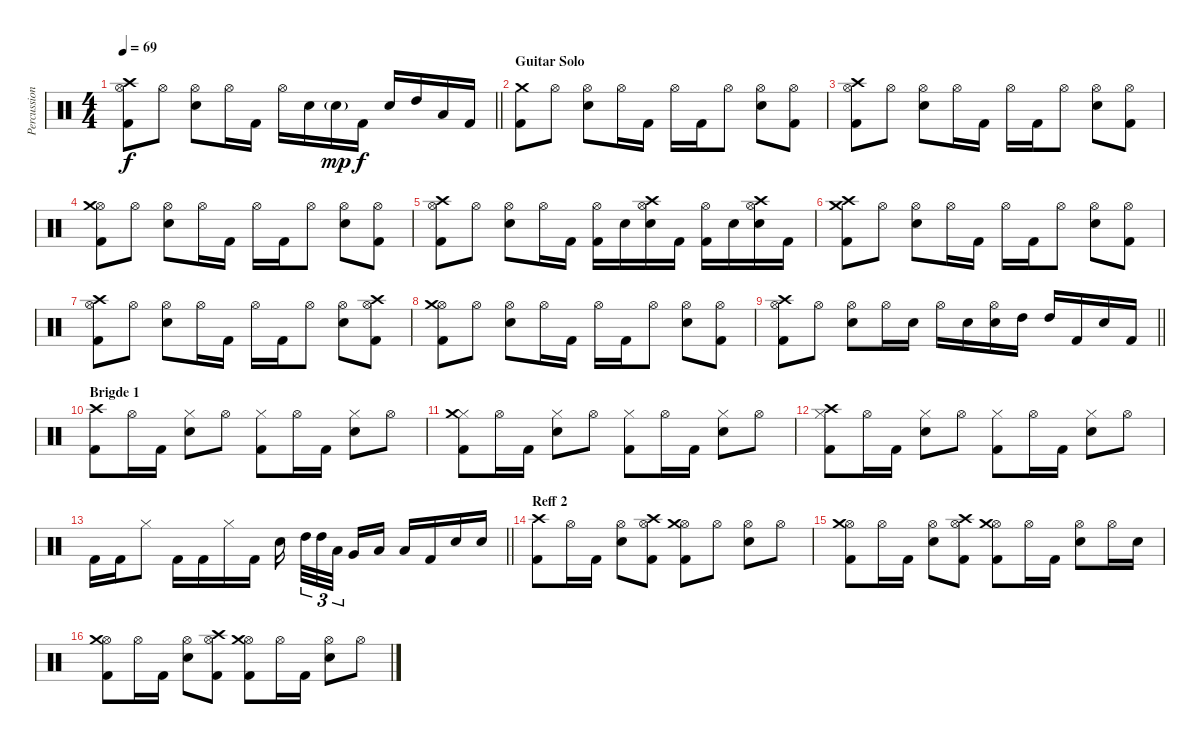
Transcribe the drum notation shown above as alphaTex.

\track ("Percussion" "Percussion") {instrument percussion}
\staff {score}
\articulation defaults
\ts (4 4)
\tempo 69
\clef neutral
\barLineRight lightlight
\ks c
("Hi-Hat (open)" "Crash high (hit)" "Kick (hit) 2").8{dy f} "Hi-Hat (open)".8 ("Hi-Hat (open)" "Electric Snare (hit)").8 "Hi-Hat (open)".16 "Kick (hit) 2".16 "Hi-Hat (open)".16 "Electric Snare (hit)".16 "Electric Snare (hit)"{g}.16{dy mp} "Kick (hit) 2".16{dy f} "Electric Snare (hit)".16 "High Tom (hit)".16 "Low Tom (hit)".16 "Kick (hit) 2".16 |
\section ("" "Guitar Solo")
("Crash medium (hit)" "Kick (hit) 2").8 "Hi-Hat (open)".8 ("Hi-Hat (open)" "Electric Snare (hit)").8 "Hi-Hat (open)".16 "Kick (hit) 2".16 "Hi-Hat (open)".16 "Kick (hit) 2".16 "Hi-Hat (open)".8 ("Hi-Hat (open)" "Electric Snare (hit)").8 ("Hi-Hat (open)" "Kick (hit) 2").8 |
("Hi-Hat (open)" "Crash high (hit)" "Kick (hit) 2").8 "Hi-Hat (open)".8 ("Hi-Hat (open)" "Electric Snare (hit)").8 "Hi-Hat (open)".16 "Kick (hit) 2".16 "Hi-Hat (open)".16 "Kick (hit) 2".16 "Hi-Hat (open)".8 ("Hi-Hat (open)" "Electric Snare (hit)").8 ("Hi-Hat (open)" "Kick (hit) 2").8 |
("Hi-Hat (open)" "Crash medium (hit)" "Kick (hit) 2").8 "Hi-Hat (open)".8 ("Hi-Hat (open)" "Electric Snare (hit)").8 "Hi-Hat (open)".16 "Kick (hit) 2".16 "Hi-Hat (open)".16 "Kick (hit) 2".16 "Hi-Hat (open)".8 ("Hi-Hat (open)" "Electric Snare (hit)").8 ("Hi-Hat (open)" "Kick (hit) 2").8 |
("Hi-Hat (open)" "Crash high (hit)" "Kick (hit) 2").8 "Hi-Hat (open)".8 ("Hi-Hat (open)" "Electric Snare (hit)").8 "Hi-Hat (open)".16 "Kick (hit) 2".16 ("Hi-Hat (open)" "Kick (hit) 2").16 "Electric Snare (hit)".16 ("Hi-Hat (open)" "Electric Snare (hit)" "Crash high (hit)").16 "Kick (hit) 2".16 ("Hi-Hat (open)" "Kick (hit) 2").16 "Electric Snare (hit)".16 ("Hi-Hat (open)" "Electric Snare (hit)" "Crash high (hit)").16 "Kick (hit) 2".16 |
("Crash high (hit)" "Crash medium (hit)" "Kick (hit) 2").8 "Hi-Hat (open)".8 ("Hi-Hat (open)" "Electric Snare (hit)").8 "Hi-Hat (open)".16 "Kick (hit) 2".16 "Hi-Hat (open)".16 "Kick (hit) 2".16 "Hi-Hat (open)".8 ("Hi-Hat (open)" "Electric Snare (hit)").8 ("Hi-Hat (open)" "Kick (hit) 2").8 |
("Hi-Hat (open)" "Crash high (hit)" "Kick (hit) 2").8 "Hi-Hat (open)".8 ("Hi-Hat (open)" "Electric Snare (hit)").8 "Hi-Hat (open)".16 "Kick (hit) 2".16 "Hi-Hat (open)".16 "Kick (hit) 2".16 "Hi-Hat (open)".8 ("Hi-Hat (open)" "Electric Snare (hit)").8 ("Hi-Hat (open)" "Crash high (hit)" "Kick (hit) 2").8 |
("Hi-Hat (open)" "Crash medium (hit)" "Kick (hit) 2").8 "Hi-Hat (open)".8 ("Hi-Hat (open)" "Electric Snare (hit)").8 "Hi-Hat (open)".16 "Kick (hit) 2".16 "Hi-Hat (open)".16 "Kick (hit) 2".16 "Hi-Hat (open)".8 ("Hi-Hat (open)" "Electric Snare (hit)").8 ("Hi-Hat (open)" "Kick (hit) 2").8 |
\barLineRight lightlight
("Hi-Hat (open)" "Crash high (hit)" "Kick (hit) 2").8 "Hi-Hat (open)".8 ("Hi-Hat (open)" "Electric Snare (hit)").8 "Hi-Hat (open)".16 "Electric Snare (hit)".16 "Hi-Hat (open)".16 "Electric Snare (hit)".16 ("Hi-Hat (open)" "Electric Snare (hit)").16 "High Tom (hit)".16 "High Tom (hit)".16 "Kick (hit) 2".16 "Electric Snare (hit)".16 "Kick (hit) 2".16 |
\section ("" "Brigde 1")
("Crash high (hit)" "Kick (hit) 2").8 "Hi-Hat (open)".16 "Kick (hit) 2".16 ("Hi-Hat (closed)" "Electric Snare (hit)").8 "Hi-Hat (open)".8 ("Hi-Hat (closed)" "Kick (hit) 2").8 "Hi-Hat (open)".16 "Kick (hit) 2".16 ("Hi-Hat (closed)" "Electric Snare (hit)").8 "Hi-Hat (open)".8 |
("Hi-Hat (closed)" "Crash medium (hit)" "Kick (hit) 2").8 "Hi-Hat (open)".16 "Kick (hit) 2".16 ("Hi-Hat (closed)" "Electric Snare (hit)").8 "Hi-Hat (open)".8 ("Hi-Hat (closed)" "Kick (hit) 2").8 "Hi-Hat (open)".16 "Kick (hit) 2".16 ("Hi-Hat (closed)" "Electric Snare (hit)").8 "Hi-Hat (open)".8 |
("Hi-Hat (closed)" "Crash high (hit)" "Kick (hit) 2").8 "Hi-Hat (open)".16 "Kick (hit) 2".16 ("Hi-Hat (closed)" "Electric Snare (hit)").8 "Hi-Hat (open)".8 ("Hi-Hat (closed)" "Kick (hit) 2").8 "Hi-Hat (open)".16 "Kick (hit) 2".16 ("Hi-Hat (closed)" "Electric Snare (hit)").8 "Hi-Hat (open)".8 |
\barLineRight lightlight "Kick (hit) 2".16 "Kick (hit) 2".16 "Hi-Hat (closed)".8 "Kick (hit) 2".16 "Kick (hit) 2".16 "Hi-Hat (closed)".16 "Kick (hit) 2".16 "Electric Snare (hit)".16{beam splitsecondary} "High Tom (hit)".32{tu (3 2)} "High Tom (hit)".32{tu (3 2)} "Low Tom (hit)".32{tu (3 2) beam splitsecondary} "Very Low Tom (hit)".16 "Low Floor Tom (hit)".16 "Low Floor Tom (hit)".16 "Kick (hit) 2".16 "Electric Snare (hit)".16 "Electric Snare (hit)".16
|
\section ("" "Reff 2")
("Crash high (hit)" "Kick (hit) 2").8 "Hi-Hat (open)".16 "Kick (hit) 2".16 ("Hi-Hat (open)" "Electric Snare (hit)").8 ("Hi-Hat (open)" "Crash high (hit)" "Kick (hit) 2").8 ("Hi-Hat (open)" "Crash medium (hit)" "Kick (hit) 2").8 "Hi-Hat (open)".8 ("Hi-Hat (open)" "Electric Snare (hit)").8 "Hi-Hat (open)".8 |
("Hi-Hat (open)" "Crash medium (hit)" "Kick (hit) 2").8 "Hi-Hat (open)".16 "Kick (hit) 2".16 ("Hi-Hat (open)" "Electric Snare (hit)").8 ("Hi-Hat (open)" "Crash high (hit)" "Kick (hit) 2").8 ("Hi-Hat (open)" "Crash medium (hit)" "Kick (hit) 2").8 "Hi-Hat (open)".16 "Kick (hit) 2".16 ("Hi-Hat (open)" "Electric Snare (hit)").8 "Hi-Hat (open)".16 "Electric Snare (hit)".16 |
("Hi-Hat (open)" "Crash medium (hit)" "Kick (hit) 2").8 "Hi-Hat (open)".16 "Kick (hit) 2".16 ("Hi-Hat (open)" "Electric Snare (hit)").8 ("Hi-Hat (open)" "Crash high (hit)" "Kick (hit) 2").8 ("Hi-Hat (open)" "Crash medium (hit)" "Kick (hit) 2").8 "Hi-Hat (open)".16 "Kick (hit) 2".16 ("Hi-Hat (open)" "Electric Snare (hit)").8 "Hi-Hat (open)".8
